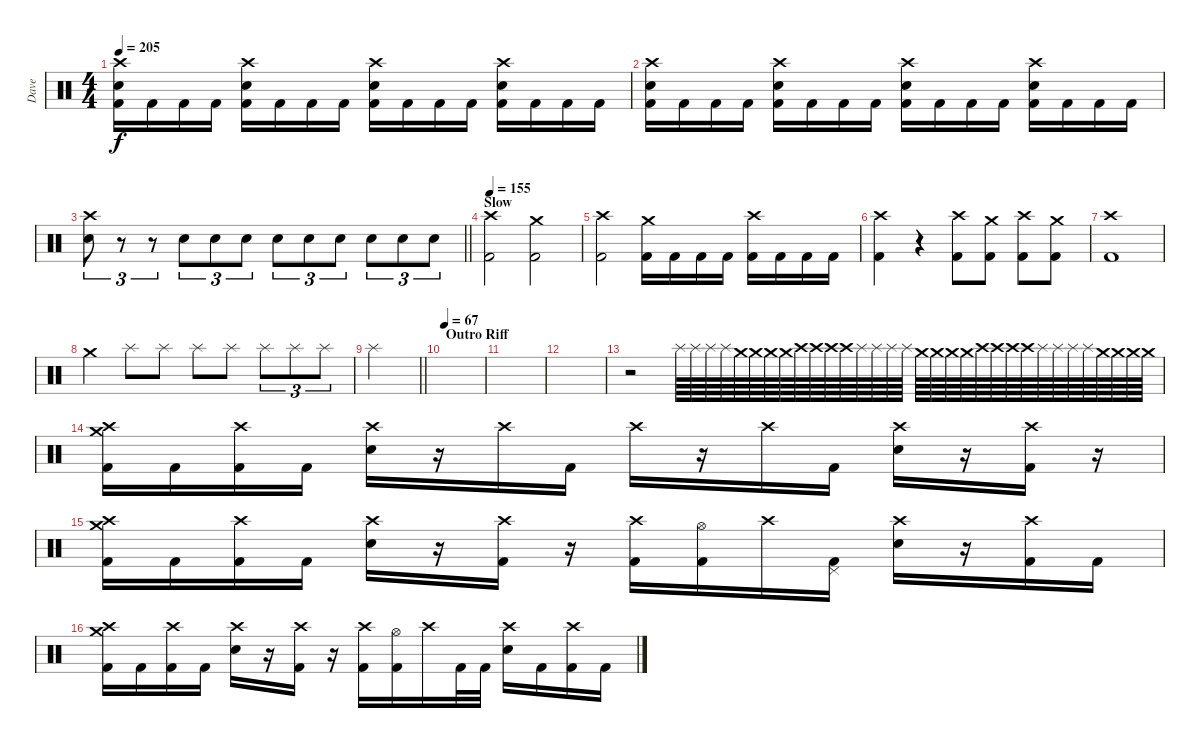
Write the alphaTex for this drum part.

\track ("Dave" "Dave") {instrument percussion}
\staff {score}
\articulation defaults
\ts (4 4)
\tempo 205
\clef neutral
\ks c
("Crash high (hit)" "Electric Snare (hit)" "Kick (hit) 2").16{dy f} "Kick (hit) 2".16 "Kick (hit) 2".16 "Kick (hit) 2".16 ("Crash high (hit)" "Electric Snare (hit)" "Kick (hit) 2").16 "Kick (hit) 2".16 "Kick (hit) 2".16 "Kick (hit) 2".16 ("Crash high (hit)" "Electric Snare (hit)" "Kick (hit) 2").16 "Kick (hit) 2".16 "Kick (hit) 2".16 "Kick (hit) 2".16 ("Crash high (hit)" "Electric Snare (hit)" "Kick (hit) 2").16 "Kick (hit) 2".16 "Kick (hit) 2".16 "Kick (hit) 2".16 |
("Crash high (hit)" "Electric Snare (hit)" "Kick (hit) 2").16 "Kick (hit) 2".16 "Kick (hit) 2".16 "Kick (hit) 2".16 ("Crash high (hit)" "Electric Snare (hit)" "Kick (hit) 2").16 "Kick (hit) 2".16 "Kick (hit) 2".16 "Kick (hit) 2".16 ("Crash high (hit)" "Electric Snare (hit)" "Kick (hit) 2").16 "Kick (hit) 2".16 "Kick (hit) 2".16 "Kick (hit) 2".16 ("Crash high (hit)" "Electric Snare (hit)" "Kick (hit) 2").16 "Kick (hit) 2".16 "Kick (hit) 2".16 "Kick (hit) 2".16 |
\barLineRight lightlight
("Crash high (hit)" "Electric Snare (hit)").8{tu (3 2)} r.8{tu (3 2)} r.8{tu (3 2)} "Electric Snare (hit)".8{tu (3 2)} "Electric Snare (hit)".8{tu (3 2)} "Electric Snare (hit)".8{tu (3 2)} "Electric Snare (hit)".8{tu (3 2)} "Electric Snare (hit)".8{tu (3 2)} "Electric Snare (hit)".8{tu (3 2)} "Electric Snare (hit)".8{tu (3 2)} "Electric Snare (hit)".8{tu (3 2)} "Electric Snare (hit)".8{tu (3 2)} |
\section ("" "Slow")
\tempo 155
("Kick (hit) 2" "Crash high (hit)").2 ("Kick (hit) 2" "Crash medium (hit)").2 |
("Kick (hit) 2" "Crash high (hit)").2 ("Crash medium (hit)" "Kick (hit) 2").16 "Kick (hit) 2".16 "Kick (hit) 2".16 "Kick (hit) 2".16 ("Crash high (hit)" "Kick (hit) 2").16 "Kick (hit) 2".16 "Kick (hit) 2".16 "Kick (hit) 2".16 |
("Crash high (hit)" "Kick (hit) 2").4 r.4 ("Kick (hit) 2" "Crash high (hit)").8 ("Kick (hit) 2" "Crash medium (hit)").8 ("Kick (hit) 2" "Crash high (hit)").8 ("Kick (hit) 2" "Crash medium (hit)").8 |
("Crash high (hit)" "Kick (hit) 2").1 |
"Crash medium (hit)".4 "Splash (hit)".8 "Splash (hit)".8 "Splash (hit)".8 "Splash (hit)".8 "Splash (hit)".8{tu (3 2)} "Splash (hit)".8{tu (3 2)} "Splash (hit)".8{tu (3 2)} |
\barLineRight lightlight "Splash (hit)".2
|
\section ("" "Outro Riff")
\tempo 67
|
|
|
r.2 "Splash (hit)".64 "Splash (hit)".64 "Splash (hit)".64 "Splash (hit)".64 "Crash medium (hit)".64 "Crash medium (hit)".64 "Crash medium (hit)".64 "Crash medium (hit)".64 "Crash high (hit)".64 "Crash high (hit)".64 "Crash high (hit)".64 "Crash high (hit)".64 "Splash (hit)".64 "Splash (hit)".64 "Splash (hit)".64 "Splash (hit)".64 "Crash medium (hit)".64 "Crash medium (hit)".64 "Crash medium (hit)".64 "Crash medium (hit)".64 "Crash high (hit)".64 "Crash high (hit)".64 "Crash high (hit)".64 "Crash high (hit)".64 "Splash (hit)".64 "Splash (hit)".64 "Splash (hit)".64 "Splash (hit)".64 "Crash medium (hit)".64 "Crash medium (hit)".64 "Crash medium (hit)".64 "Crash medium (hit)".64 |
("Kick (hit) 2" "Crash medium (hit)" "Crash high (hit)").16 "Kick (hit) 2".16 ("Kick (hit) 2" "Crash high (hit)").16 "Kick (hit) 2".16 ("Electric Snare (hit)" "Crash high (hit)").16 r.16 "Crash high (hit)".16 "Kick (hit) 2".16 "Crash high (hit)".16 r.16 "Crash high (hit)".16 "Kick (hit) 2".16 ("Electric Snare (hit)" "Crash high (hit)").16 r.16 ("Kick (hit) 2" "Crash high (hit)").16 r.16 |
("Kick (hit) 2" "Crash medium (hit)" "Crash high (hit)").16 "Kick (hit) 2".16 ("Kick (hit) 2" "Crash high (hit)").16 "Kick (hit) 2".16 ("Electric Snare (hit)" "Crash high (hit)").16 r.16 ("Kick (hit) 2" "Crash high (hit)").16 r.16 ("Kick (hit) 2" "Crash high (hit)").16 ("Kick (hit) 2" "Hi-Hat (open)").16 "Crash high (hit)".16 ("Kick (hit) 2" "Pedal Hi-Hat (hit)").16 ("Electric Snare (hit)" "Crash high (hit)").16 r.16 ("Kick (hit) 2" "Crash high (hit)").16 "Kick (hit) 2".16 |
("Kick (hit) 2" "Crash medium (hit)" "Crash high (hit)").16 "Kick (hit) 2".16 ("Kick (hit) 2" "Crash high (hit)").16 "Kick (hit) 2".16 ("Electric Snare (hit)" "Crash high (hit)").16 r.16 ("Kick (hit) 2" "Crash high (hit)").16 r.16 ("Kick (hit) 2" "Crash high (hit)").16 ("Kick (hit) 2" "Hi-Hat (open)").16 "Crash high (hit)".16 "Kick (hit) 2".32 "Kick (hit) 2".32 ("Electric Snare (hit)" "Crash high (hit)").16 "Kick (hit) 2".16 ("Kick (hit) 2" "Crash high (hit)").16 "Kick (hit) 2".16
